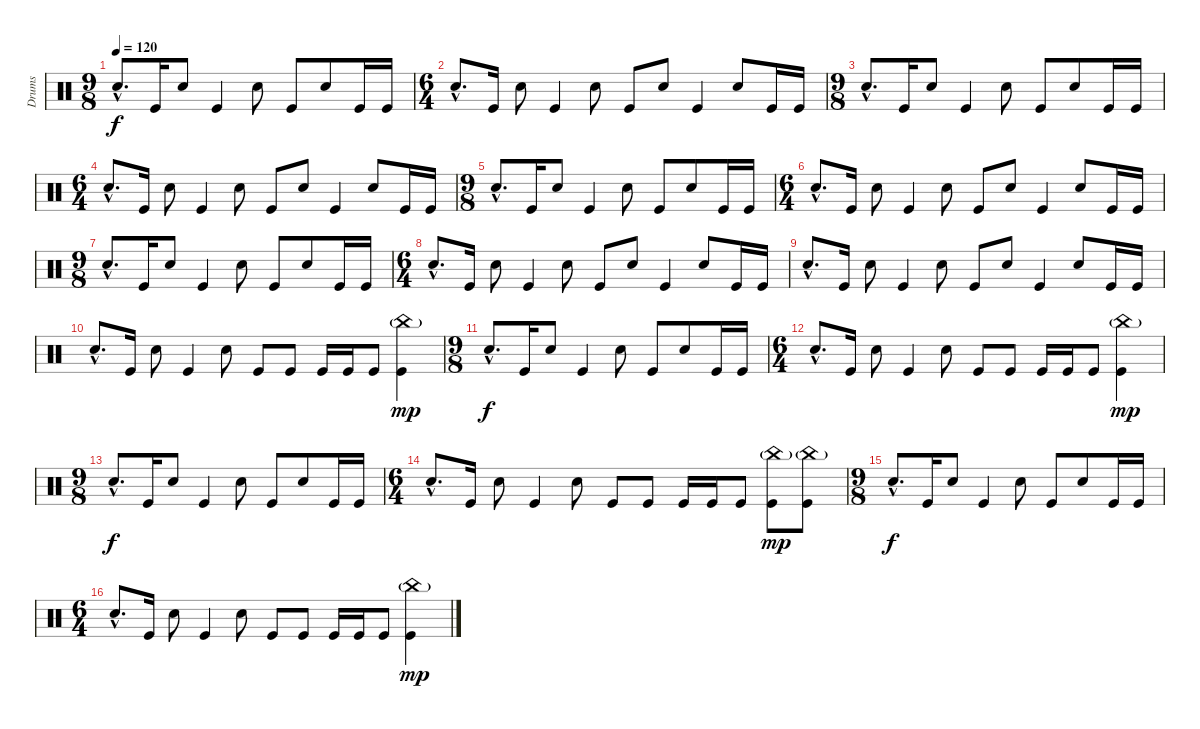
\track ("Drums" "Drums") {instrument percussion}
\staff {score}
\articulation defaults
\ts (9 8)
\tempo 120
\clef neutral
\ks c "Hand Clap (hit)"{hac}.8{d dy f} "Kick (hit)".16 "Hand Clap (hit)".8 "Kick (hit)".4 "Hand Clap (hit)".8 "Kick (hit)".8 "Hand Clap (hit)".8 "Kick (hit)".16 "Kick (hit)".16
|
\ts (6 4)
"Hand Clap (hit)"{hac}.8{d} "Kick (hit)".16 "Hand Clap (hit)".8 "Kick (hit)".4 "Hand Clap (hit)".8 "Kick (hit)".8 "Hand Clap (hit)".8 "Kick (hit)".4 "Hand Clap (hit)".8 "Kick (hit)".16 "Kick (hit)".16 |
\ts (9 8)
"Hand Clap (hit)"{hac}.8{d} "Kick (hit)".16 "Hand Clap (hit)".8 "Kick (hit)".4 "Hand Clap (hit)".8 "Kick (hit)".8 "Hand Clap (hit)".8 "Kick (hit)".16 "Kick (hit)".16 |
\ts (6 4)
"Hand Clap (hit)"{hac}.8{d} "Kick (hit)".16 "Hand Clap (hit)".8 "Kick (hit)".4 "Hand Clap (hit)".8 "Kick (hit)".8 "Hand Clap (hit)".8 "Kick (hit)".4 "Hand Clap (hit)".8 "Kick (hit)".16 "Kick (hit)".16 |
\ts (9 8)
"Hand Clap (hit)"{hac}.8{d} "Kick (hit)".16 "Hand Clap (hit)".8 "Kick (hit)".4 "Hand Clap (hit)".8 "Kick (hit)".8 "Hand Clap (hit)".8 "Kick (hit)".16 "Kick (hit)".16 |
\ts (6 4)
"Hand Clap (hit)"{hac}.8{d} "Kick (hit)".16 "Hand Clap (hit)".8 "Kick (hit)".4 "Hand Clap (hit)".8 "Kick (hit)".8 "Hand Clap (hit)".8 "Kick (hit)".4 "Hand Clap (hit)".8 "Kick (hit)".16 "Kick (hit)".16 |
\ts (9 8)
"Hand Clap (hit)"{hac}.8{d} "Kick (hit)".16 "Hand Clap (hit)".8 "Kick (hit)".4 "Hand Clap (hit)".8 "Kick (hit)".8 "Hand Clap (hit)".8 "Kick (hit)".16 "Kick (hit)".16 |
\ts (6 4)
"Hand Clap (hit)"{hac}.8{d} "Kick (hit)".16 "Hand Clap (hit)".8 "Kick (hit)".4 "Hand Clap (hit)".8 "Kick (hit)".8 "Hand Clap (hit)".8 "Kick (hit)".4 "Hand Clap (hit)".8 "Kick (hit)".16 "Kick (hit)".16 |
"Hand Clap (hit)"{hac}.8{d} "Kick (hit)".16 "Hand Clap (hit)".8 "Kick (hit)".4 "Hand Clap (hit)".8 "Kick (hit)".8 "Hand Clap (hit)".8 "Kick (hit)".4 "Hand Clap (hit)".8 "Kick (hit)".16 "Kick (hit)".16 |
"Hand Clap (hit)"{hac}.8{d} "Kick (hit)".16 "Hand Clap (hit)".8 "Kick (hit)".4 "Hand Clap (hit)".8 "Kick (hit)".8 "Kick (hit)".8 "Kick (hit)".16 "Kick (hit)".16 "Kick (hit)".8 ("China (hit)"{g} "Kick (hit)").4{dy mp} |
\ts (9 8)
"Hand Clap (hit)"{hac}.8{d dy f} "Kick (hit)".16 "Hand Clap (hit)".8 "Kick (hit)".4 "Hand Clap (hit)".8 "Kick (hit)".8 "Hand Clap (hit)".8 "Kick (hit)".16 "Kick (hit)".16 |
\ts (6 4)
"Hand Clap (hit)"{hac}.8{d} "Kick (hit)".16 "Hand Clap (hit)".8 "Kick (hit)".4 "Hand Clap (hit)".8 "Kick (hit)".8 "Kick (hit)".8 "Kick (hit)".16 "Kick (hit)".16 "Kick (hit)".8 ("China (hit)"{g} "Kick (hit)").4{dy mp} |
\ts (9 8)
"Hand Clap (hit)"{hac}.8{d dy f} "Kick (hit)".16 "Hand Clap (hit)".8 "Kick (hit)".4 "Hand Clap (hit)".8 "Kick (hit)".8 "Hand Clap (hit)".8 "Kick (hit)".16 "Kick (hit)".16 |
\ts (6 4)
"Hand Clap (hit)"{hac}.8{d} "Kick (hit)".16 "Hand Clap (hit)".8 "Kick (hit)".4 "Hand Clap (hit)".8 "Kick (hit)".8 "Kick (hit)".8 "Kick (hit)".16 "Kick (hit)".16 "Kick (hit)".8 ("China (hit)"{g} "Kick (hit)").8{dy mp} ("China (hit)"{g} "Kick (hit)").8 |
\ts (9 8)
"Hand Clap (hit)"{hac}.8{d dy f} "Kick (hit)".16 "Hand Clap (hit)".8 "Kick (hit)".4 "Hand Clap (hit)".8 "Kick (hit)".8 "Hand Clap (hit)".8 "Kick (hit)".16 "Kick (hit)".16 |
\ts (6 4)
"Hand Clap (hit)"{hac}.8{d} "Kick (hit)".16 "Hand Clap (hit)".8 "Kick (hit)".4 "Hand Clap (hit)".8 "Kick (hit)".8 "Kick (hit)".8 "Kick (hit)".16 "Kick (hit)".16 "Kick (hit)".8 ("China (hit)"{g} "Kick (hit)").4{dy mp}
